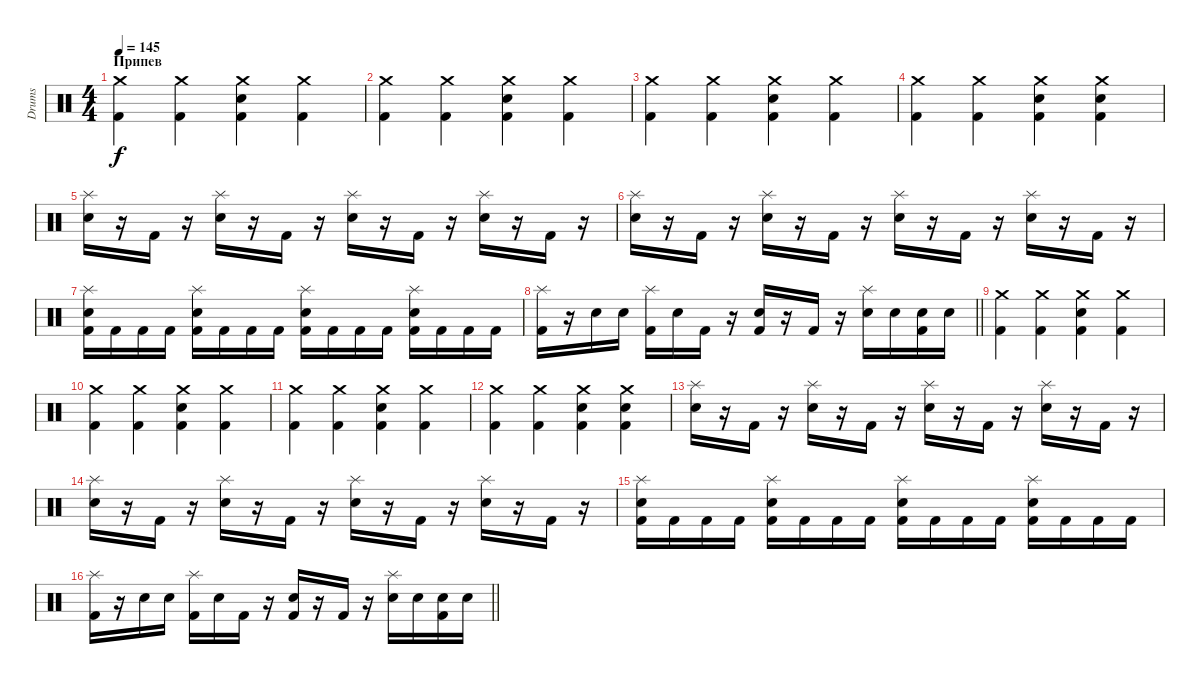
\track ("Drums" "Drums") {instrument percussion}
\staff {score}
\articulation defaults
\ts (4 4)
\section ("" "Припев")
\tempo 145
\clef neutral
\ks c
("Crash medium (hit)" "Kick (hit) 2").4{dy f} ("Crash medium (hit)" "Kick (hit) 2").4 ("Crash medium (hit)" "Electric Snare (hit)" "Kick (hit) 2").4 ("Crash medium (hit)" "Kick (hit) 2").4 |
("Crash medium (hit)" "Kick (hit) 2").4 ("Crash medium (hit)" "Kick (hit) 2").4 ("Crash medium (hit)" "Electric Snare (hit)" "Kick (hit) 2").4 ("Crash medium (hit)" "Kick (hit) 2").4 |
("Crash medium (hit)" "Kick (hit) 2").4 ("Crash medium (hit)" "Kick (hit) 2").4 ("Crash medium (hit)" "Electric Snare (hit)" "Kick (hit) 2").4 ("Crash medium (hit)" "Kick (hit) 2").4 |
("Crash medium (hit)" "Kick (hit) 2").4 ("Crash medium (hit)" "Kick (hit) 2").4 ("Crash medium (hit)" "Electric Snare (hit)" "Kick (hit) 2").4 ("Crash medium (hit)" "Electric Snare (hit)" "Kick (hit) 2").4 |
("Splash (hit)" "Electric Snare (hit)").16 r.16 "Kick (hit) 2".16 r.16 ("Splash (hit)" "Electric Snare (hit)").16 r.16 "Kick (hit) 2".16 r.16 ("Splash (hit)" "Electric Snare (hit)").16 r.16 "Kick (hit) 2".16 r.16 ("Splash (hit)" "Electric Snare (hit)").16 r.16 "Kick (hit) 2".16 r.16 |
("Splash (hit)" "Electric Snare (hit)").16 r.16 "Kick (hit) 2".16 r.16 ("Splash (hit)" "Electric Snare (hit)").16 r.16 "Kick (hit) 2".16 r.16 ("Splash (hit)" "Electric Snare (hit)").16 r.16 "Kick (hit) 2".16 r.16 ("Splash (hit)" "Electric Snare (hit)").16 r.16 "Kick (hit) 2".16 r.16 |
("Splash (hit)" "Electric Snare (hit)" "Kick (hit) 2").16 "Kick (hit) 2".16 "Kick (hit) 2".16 "Kick (hit) 2".16 ("Splash (hit)" "Electric Snare (hit)" "Kick (hit) 2").16 "Kick (hit) 2".16 "Kick (hit) 2".16 "Kick (hit) 2".16 ("Splash (hit)" "Electric Snare (hit)" "Kick (hit) 2").16 "Kick (hit) 2".16 "Kick (hit) 2".16 "Kick (hit) 2".16 ("Splash (hit)" "Electric Snare (hit)" "Kick (hit) 2").16 "Kick (hit) 2".16 "Kick (hit) 2".16 "Kick (hit) 2".16 |
\barLineRight lightlight
("Splash (hit)" "Kick (hit) 2").16 r.16 "Electric Snare (hit)".16 "Electric Snare (hit)".16 ("Splash (hit)" "Kick (hit) 2").16 "Electric Snare (hit)".16 "Kick (hit) 2".16 r.16 ("Electric Snare (hit)" "Kick (hit) 2").16 r.16 "Kick (hit) 2".16 r.16 ("Splash (hit)" "Electric Snare (hit)").16 "Electric Snare (hit)".16 ("Electric Snare (hit)" "Kick (hit) 2").16 "Electric Snare (hit)".16 |
("Crash medium (hit)" "Kick (hit) 2").4 ("Crash medium (hit)" "Kick (hit) 2").4 ("Crash medium (hit)" "Electric Snare (hit)" "Kick (hit) 2").4 ("Crash medium (hit)" "Kick (hit) 2").4 |
("Crash medium (hit)" "Kick (hit) 2").4 ("Crash medium (hit)" "Kick (hit) 2").4 ("Crash medium (hit)" "Electric Snare (hit)" "Kick (hit) 2").4 ("Crash medium (hit)" "Kick (hit) 2").4 |
("Crash medium (hit)" "Kick (hit) 2").4 ("Crash medium (hit)" "Kick (hit) 2").4 ("Crash medium (hit)" "Electric Snare (hit)" "Kick (hit) 2").4 ("Crash medium (hit)" "Kick (hit) 2").4 |
("Crash medium (hit)" "Kick (hit) 2").4 ("Crash medium (hit)" "Kick (hit) 2").4 ("Crash medium (hit)" "Electric Snare (hit)" "Kick (hit) 2").4 ("Crash medium (hit)" "Electric Snare (hit)" "Kick (hit) 2").4 |
("Splash (hit)" "Electric Snare (hit)").16 r.16 "Kick (hit) 2".16 r.16 ("Splash (hit)" "Electric Snare (hit)").16 r.16 "Kick (hit) 2".16 r.16 ("Splash (hit)" "Electric Snare (hit)").16 r.16 "Kick (hit) 2".16 r.16 ("Splash (hit)" "Electric Snare (hit)").16 r.16 "Kick (hit) 2".16 r.16 |
("Splash (hit)" "Electric Snare (hit)").16 r.16 "Kick (hit) 2".16 r.16 ("Splash (hit)" "Electric Snare (hit)").16 r.16 "Kick (hit) 2".16 r.16 ("Splash (hit)" "Electric Snare (hit)").16 r.16 "Kick (hit) 2".16 r.16 ("Splash (hit)" "Electric Snare (hit)").16 r.16 "Kick (hit) 2".16 r.16 |
("Splash (hit)" "Electric Snare (hit)" "Kick (hit) 2").16 "Kick (hit) 2".16 "Kick (hit) 2".16 "Kick (hit) 2".16 ("Splash (hit)" "Electric Snare (hit)" "Kick (hit) 2").16 "Kick (hit) 2".16 "Kick (hit) 2".16 "Kick (hit) 2".16 ("Splash (hit)" "Electric Snare (hit)" "Kick (hit) 2").16 "Kick (hit) 2".16 "Kick (hit) 2".16 "Kick (hit) 2".16 ("Splash (hit)" "Electric Snare (hit)" "Kick (hit) 2").16 "Kick (hit) 2".16 "Kick (hit) 2".16 "Kick (hit) 2".16 |
\barLineRight lightlight
("Splash (hit)" "Kick (hit) 2").16 r.16 "Electric Snare (hit)".16 "Electric Snare (hit)".16 ("Splash (hit)" "Kick (hit) 2").16 "Electric Snare (hit)".16 "Kick (hit) 2".16 r.16 ("Electric Snare (hit)" "Kick (hit) 2").16 r.16 "Kick (hit) 2".16 r.16 ("Splash (hit)" "Electric Snare (hit)").16 "Electric Snare (hit)".16 ("Electric Snare (hit)" "Kick (hit) 2").16 "Electric Snare (hit)".16
